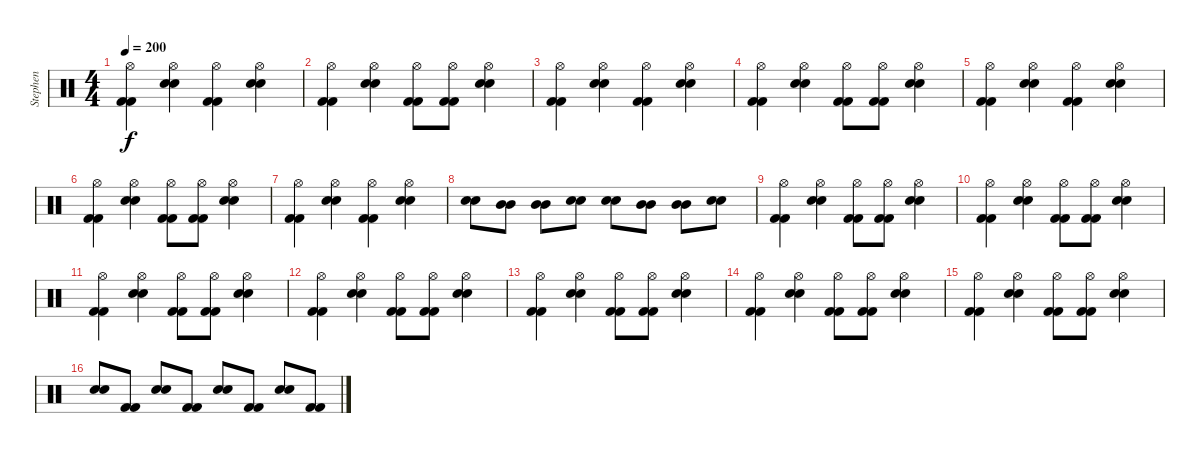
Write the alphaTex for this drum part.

\track ("Stephen" "Stephen") {instrument percussion}
\staff {score}
\articulation defaults
\ts (4 4)
\tempo 200
\clef neutral
\ks c
("Hi-Hat (open)" "Kick (hit) 2" "Kick (hit) 2").4{dy f} ("Hi-Hat (open)" "Electric Snare (hit)" "Electric Snare (hit)").4 ("Hi-Hat (open)" "Kick (hit) 2" "Kick (hit) 2").4 ("Hi-Hat (open)" "Electric Snare (hit)" "Electric Snare (hit)").4 |
("Hi-Hat (open)" "Kick (hit) 2" "Kick (hit) 2").4 ("Hi-Hat (open)" "Electric Snare (hit)" "Electric Snare (hit)").4 ("Hi-Hat (open)" "Kick (hit) 2" "Kick (hit) 2").8 ("Hi-Hat (open)" "Kick (hit) 2" "Kick (hit) 2").8 ("Hi-Hat (open)" "Electric Snare (hit)" "Electric Snare (hit)").4 |
("Hi-Hat (open)" "Kick (hit) 2" "Kick (hit) 2").4 ("Hi-Hat (open)" "Electric Snare (hit)" "Electric Snare (hit)").4 ("Hi-Hat (open)" "Kick (hit) 2" "Kick (hit) 2").4 ("Hi-Hat (open)" "Electric Snare (hit)" "Electric Snare (hit)").4 |
("Hi-Hat (open)" "Kick (hit) 2" "Kick (hit) 2").4 ("Hi-Hat (open)" "Electric Snare (hit)" "Electric Snare (hit)").4 ("Hi-Hat (open)" "Kick (hit) 2" "Kick (hit) 2").8 ("Hi-Hat (open)" "Kick (hit) 2" "Kick (hit) 2").8 ("Hi-Hat (open)" "Electric Snare (hit)" "Electric Snare (hit)").4 |
("Hi-Hat (open)" "Kick (hit) 2" "Kick (hit) 2").4 ("Hi-Hat (open)" "Electric Snare (hit)" "Electric Snare (hit)").4 ("Hi-Hat (open)" "Kick (hit) 2" "Kick (hit) 2").4 ("Hi-Hat (open)" "Electric Snare (hit)" "Electric Snare (hit)").4 |
("Hi-Hat (open)" "Kick (hit) 2" "Kick (hit) 2").4 ("Hi-Hat (open)" "Electric Snare (hit)" "Electric Snare (hit)").4 ("Hi-Hat (open)" "Kick (hit) 2" "Kick (hit) 2").8 ("Hi-Hat (open)" "Kick (hit) 2" "Kick (hit) 2").8 ("Hi-Hat (open)" "Electric Snare (hit)" "Electric Snare (hit)").4 |
("Hi-Hat (open)" "Kick (hit) 2" "Kick (hit) 2").4 ("Hi-Hat (open)" "Electric Snare (hit)" "Electric Snare (hit)").4 ("Hi-Hat (open)" "Kick (hit) 2" "Kick (hit) 2").4 ("Hi-Hat (open)" "Electric Snare (hit)" "Electric Snare (hit)").4 |
("Electric Snare (hit)" "Electric Snare (hit)").8 ("Mid Tom (hit)" "Mid Tom (hit)").8 ("Mid Tom (hit)" "Mid Tom (hit)").8 ("Electric Snare (hit)" "Electric Snare (hit)").8 ("Electric Snare (hit)" "Electric Snare (hit)").8 ("Mid Tom (hit)" "Mid Tom (hit)").8 ("Mid Tom (hit)" "Mid Tom (hit)").8 ("Electric Snare (hit)" "Electric Snare (hit)").8 |
("Hi-Hat (open)" "Kick (hit) 2" "Kick (hit) 2").4 ("Hi-Hat (open)" "Electric Snare (hit)" "Electric Snare (hit)").4 ("Hi-Hat (open)" "Kick (hit) 2" "Kick (hit) 2").8 ("Hi-Hat (open)" "Kick (hit) 2" "Kick (hit) 2").8 ("Hi-Hat (open)" "Electric Snare (hit)" "Electric Snare (hit)").4 |
("Hi-Hat (open)" "Kick (hit) 2" "Kick (hit) 2").4 ("Hi-Hat (open)" "Electric Snare (hit)" "Electric Snare (hit)").4 ("Hi-Hat (open)" "Kick (hit) 2" "Kick (hit) 2").8 ("Hi-Hat (open)" "Kick (hit) 2" "Kick (hit) 2").8 ("Hi-Hat (open)" "Electric Snare (hit)" "Electric Snare (hit)").4 |
("Hi-Hat (open)" "Kick (hit) 2" "Kick (hit) 2").4 ("Hi-Hat (open)" "Electric Snare (hit)" "Electric Snare (hit)").4 ("Hi-Hat (open)" "Kick (hit) 2" "Kick (hit) 2").8 ("Hi-Hat (open)" "Kick (hit) 2" "Kick (hit) 2").8 ("Hi-Hat (open)" "Electric Snare (hit)" "Electric Snare (hit)").4 |
("Hi-Hat (open)" "Kick (hit) 2" "Kick (hit) 2").4 ("Hi-Hat (open)" "Electric Snare (hit)" "Electric Snare (hit)").4 ("Hi-Hat (open)" "Kick (hit) 2" "Kick (hit) 2").8 ("Hi-Hat (open)" "Kick (hit) 2" "Kick (hit) 2").8 ("Hi-Hat (open)" "Electric Snare (hit)" "Electric Snare (hit)").4 |
("Hi-Hat (open)" "Kick (hit) 2" "Kick (hit) 2").4 ("Hi-Hat (open)" "Electric Snare (hit)" "Electric Snare (hit)").4 ("Hi-Hat (open)" "Kick (hit) 2" "Kick (hit) 2").8 ("Hi-Hat (open)" "Kick (hit) 2" "Kick (hit) 2").8 ("Hi-Hat (open)" "Electric Snare (hit)" "Electric Snare (hit)").4 |
("Hi-Hat (open)" "Kick (hit) 2" "Kick (hit) 2").4 ("Hi-Hat (open)" "Electric Snare (hit)" "Electric Snare (hit)").4 ("Hi-Hat (open)" "Kick (hit) 2" "Kick (hit) 2").8 ("Hi-Hat (open)" "Kick (hit) 2" "Kick (hit) 2").8 ("Hi-Hat (open)" "Electric Snare (hit)" "Electric Snare (hit)").4 |
("Hi-Hat (open)" "Kick (hit) 2" "Kick (hit) 2").4 ("Hi-Hat (open)" "Electric Snare (hit)" "Electric Snare (hit)").4 ("Hi-Hat (open)" "Kick (hit) 2" "Kick (hit) 2").8 ("Hi-Hat (open)" "Kick (hit) 2" "Kick (hit) 2").8 ("Hi-Hat (open)" "Electric Snare (hit)" "Electric Snare (hit)").4 |
("Electric Snare (hit)" "Electric Snare (hit)").8 ("Kick (hit) 2" "Kick (hit) 2").8 ("Electric Snare (hit)" "Electric Snare (hit)").8 ("Kick (hit) 2" "Kick (hit) 2").8 ("Electric Snare (hit)" "Electric Snare (hit)").8 ("Kick (hit) 2" "Kick (hit) 2").8 ("Electric Snare (hit)" "Electric Snare (hit)").8 ("Kick (hit) 2" "Kick (hit) 2").8
